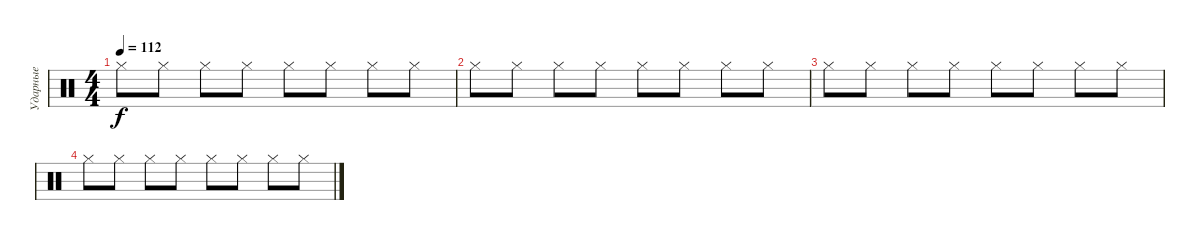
\track ("Ударные" "Ударные") {instrument percussion}
\staff {score}
\articulation defaults
\ts (4 4)
\tempo 112
\clef neutral
\ks c "Hi-Hat (closed)".8{dy f} "Hi-Hat (closed)".8 "Hi-Hat (closed)".8 "Hi-Hat (closed)".8 "Hi-Hat (closed)".8 "Hi-Hat (closed)".8 "Hi-Hat (closed)".8 "Hi-Hat (closed)".8
|
"Hi-Hat (closed)".8 "Hi-Hat (closed)".8 "Hi-Hat (closed)".8 "Hi-Hat (closed)".8 "Hi-Hat (closed)".8 "Hi-Hat (closed)".8 "Hi-Hat (closed)".8 "Hi-Hat (closed)".8 |
"Hi-Hat (closed)".8 "Hi-Hat (closed)".8 "Hi-Hat (closed)".8 "Hi-Hat (closed)".8 "Hi-Hat (closed)".8 "Hi-Hat (closed)".8 "Hi-Hat (closed)".8 "Hi-Hat (closed)".8 |
"Hi-Hat (closed)".8 "Hi-Hat (closed)".8 "Hi-Hat (closed)".8 "Hi-Hat (closed)".8 "Hi-Hat (closed)".8 "Hi-Hat (closed)".8 "Hi-Hat (closed)".8 "Hi-Hat (closed)".8
